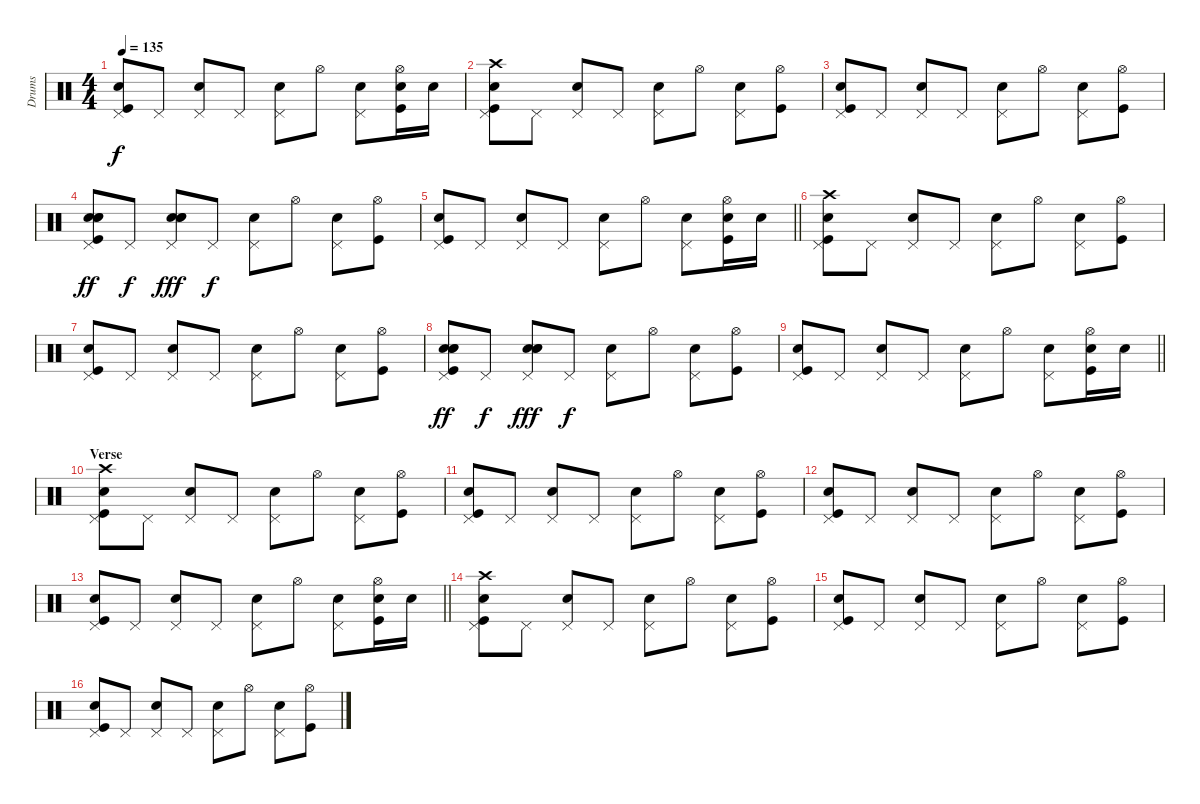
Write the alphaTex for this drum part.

\track ("Drums" "Drums") {instrument percussion}
\staff {score}
\articulation defaults
\ts (4 4)
\tempo 135
\clef neutral
\ks c
("Pedal Hi-Hat (hit)" "Kick (hit)" "Electric Snare (hit)").8{dy f} "Pedal Hi-Hat (hit)".8 ("Pedal Hi-Hat (hit)" "Electric Snare (hit)").8 "Pedal Hi-Hat (hit)".8 ("Pedal Hi-Hat (hit)" "Electric Snare (hit)").8 "Hi-Hat (open)".8 ("Pedal Hi-Hat (hit)" "Electric Snare (hit)").8 ("Hi-Hat (open)" "Kick (hit)" "Electric Snare (hit)").16 "Electric Snare (hit)".16 |
("Pedal Hi-Hat (hit)" "Kick (hit)" "Electric Snare (hit)" "Crash high (hit)").8 "Pedal Hi-Hat (hit)".8 ("Pedal Hi-Hat (hit)" "Electric Snare (hit)").8 "Pedal Hi-Hat (hit)".8 ("Pedal Hi-Hat (hit)" "Electric Snare (hit)").8 "Hi-Hat (open)".8 ("Pedal Hi-Hat (hit)" "Electric Snare (hit)").8 ("Hi-Hat (open)" "Kick (hit)").8 |
("Pedal Hi-Hat (hit)" "Kick (hit)" "Electric Snare (hit)").8 "Pedal Hi-Hat (hit)".8 ("Pedal Hi-Hat (hit)" "Electric Snare (hit)").8 "Pedal Hi-Hat (hit)".8 ("Pedal Hi-Hat (hit)" "Electric Snare (hit)").8 "Hi-Hat (open)".8 ("Pedal Hi-Hat (hit)" "Electric Snare (hit)").8 ("Hi-Hat (open)" "Kick (hit)").8 |
("Pedal Hi-Hat (hit)" "Kick (hit)" "Electric Snare (hit)" "Hand Clap (hit)" "Hand Clap (hit)").8{dy ff} "Pedal Hi-Hat (hit)".8{dy f} ("Pedal Hi-Hat (hit)" "Electric Snare (hit)" "Hand Clap (hit)" "Hand Clap (hit)").8{dy fff} "Pedal Hi-Hat (hit)".8{dy f} ("Pedal Hi-Hat (hit)" "Electric Snare (hit)").8 "Hi-Hat (open)".8 ("Pedal Hi-Hat (hit)" "Electric Snare (hit)").8 ("Hi-Hat (open)" "Kick (hit)").8 |
\barLineRight lightlight
("Pedal Hi-Hat (hit)" "Kick (hit)" "Electric Snare (hit)").8 "Pedal Hi-Hat (hit)".8 ("Pedal Hi-Hat (hit)" "Electric Snare (hit)").8 "Pedal Hi-Hat (hit)".8 ("Pedal Hi-Hat (hit)" "Electric Snare (hit)").8 "Hi-Hat (open)".8 ("Pedal Hi-Hat (hit)" "Electric Snare (hit)").8 ("Hi-Hat (open)" "Kick (hit)" "Electric Snare (hit)").16 "Electric Snare (hit)".16 |
("Pedal Hi-Hat (hit)" "Kick (hit)" "Electric Snare (hit)" "Crash high (hit)").8 "Pedal Hi-Hat (hit)".8 ("Pedal Hi-Hat (hit)" "Electric Snare (hit)").8 "Pedal Hi-Hat (hit)".8 ("Pedal Hi-Hat (hit)" "Electric Snare (hit)").8 "Hi-Hat (open)".8 ("Pedal Hi-Hat (hit)" "Electric Snare (hit)").8 ("Hi-Hat (open)" "Kick (hit)").8 |
("Pedal Hi-Hat (hit)" "Kick (hit)" "Electric Snare (hit)").8 "Pedal Hi-Hat (hit)".8 ("Pedal Hi-Hat (hit)" "Electric Snare (hit)").8 "Pedal Hi-Hat (hit)".8 ("Pedal Hi-Hat (hit)" "Electric Snare (hit)").8 "Hi-Hat (open)".8 ("Pedal Hi-Hat (hit)" "Electric Snare (hit)").8 ("Hi-Hat (open)" "Kick (hit)").8 |
("Pedal Hi-Hat (hit)" "Kick (hit)" "Electric Snare (hit)" "Hand Clap (hit)" "Hand Clap (hit)").8{dy ff} "Pedal Hi-Hat (hit)".8{dy f} ("Pedal Hi-Hat (hit)" "Electric Snare (hit)" "Hand Clap (hit)" "Hand Clap (hit)").8{dy fff} "Pedal Hi-Hat (hit)".8{dy f} ("Pedal Hi-Hat (hit)" "Electric Snare (hit)").8 "Hi-Hat (open)".8 ("Pedal Hi-Hat (hit)" "Electric Snare (hit)").8 ("Hi-Hat (open)" "Kick (hit)").8 |
\barLineRight lightlight
("Pedal Hi-Hat (hit)" "Kick (hit)" "Electric Snare (hit)").8 "Pedal Hi-Hat (hit)".8 ("Pedal Hi-Hat (hit)" "Electric Snare (hit)").8 "Pedal Hi-Hat (hit)".8 ("Pedal Hi-Hat (hit)" "Electric Snare (hit)").8 "Hi-Hat (open)".8 ("Pedal Hi-Hat (hit)" "Electric Snare (hit)").8 ("Hi-Hat (open)" "Kick (hit)" "Electric Snare (hit)").16 "Electric Snare (hit)".16 |
\section ("" "Verse")
("Pedal Hi-Hat (hit)" "Kick (hit)" "Electric Snare (hit)" "Crash high (hit)").8 "Pedal Hi-Hat (hit)".8 ("Pedal Hi-Hat (hit)" "Electric Snare (hit)").8 "Pedal Hi-Hat (hit)".8 ("Pedal Hi-Hat (hit)" "Electric Snare (hit)").8 "Hi-Hat (open)".8 ("Pedal Hi-Hat (hit)" "Electric Snare (hit)").8 ("Hi-Hat (open)" "Kick (hit)").8 |
("Pedal Hi-Hat (hit)" "Kick (hit)" "Electric Snare (hit)").8 "Pedal Hi-Hat (hit)".8 ("Pedal Hi-Hat (hit)" "Electric Snare (hit)").8 "Pedal Hi-Hat (hit)".8 ("Pedal Hi-Hat (hit)" "Electric Snare (hit)").8 "Hi-Hat (open)".8 ("Pedal Hi-Hat (hit)" "Electric Snare (hit)").8 ("Hi-Hat (open)" "Kick (hit)").8 |
("Pedal Hi-Hat (hit)" "Kick (hit)" "Electric Snare (hit)").8 "Pedal Hi-Hat (hit)".8 ("Pedal Hi-Hat (hit)" "Electric Snare (hit)").8 "Pedal Hi-Hat (hit)".8 ("Pedal Hi-Hat (hit)" "Electric Snare (hit)").8 "Hi-Hat (open)".8 ("Pedal Hi-Hat (hit)" "Electric Snare (hit)").8 ("Hi-Hat (open)" "Kick (hit)").8 |
\barLineRight lightlight
("Pedal Hi-Hat (hit)" "Kick (hit)" "Electric Snare (hit)").8 "Pedal Hi-Hat (hit)".8 ("Pedal Hi-Hat (hit)" "Electric Snare (hit)").8 "Pedal Hi-Hat (hit)".8 ("Pedal Hi-Hat (hit)" "Electric Snare (hit)").8 "Hi-Hat (open)".8 ("Pedal Hi-Hat (hit)" "Electric Snare (hit)").8 ("Hi-Hat (open)" "Kick (hit)" "Electric Snare (hit)").16 "Electric Snare (hit)".16 |
("Pedal Hi-Hat (hit)" "Kick (hit)" "Electric Snare (hit)" "Crash high (hit)").8 "Pedal Hi-Hat (hit)".8 ("Pedal Hi-Hat (hit)" "Electric Snare (hit)").8 "Pedal Hi-Hat (hit)".8 ("Pedal Hi-Hat (hit)" "Electric Snare (hit)").8 "Hi-Hat (open)".8 ("Pedal Hi-Hat (hit)" "Electric Snare (hit)").8 ("Hi-Hat (open)" "Kick (hit)").8 |
("Pedal Hi-Hat (hit)" "Kick (hit)" "Electric Snare (hit)").8 "Pedal Hi-Hat (hit)".8 ("Pedal Hi-Hat (hit)" "Electric Snare (hit)").8 "Pedal Hi-Hat (hit)".8 ("Pedal Hi-Hat (hit)" "Electric Snare (hit)").8 "Hi-Hat (open)".8 ("Pedal Hi-Hat (hit)" "Electric Snare (hit)").8 ("Hi-Hat (open)" "Kick (hit)").8 |
("Pedal Hi-Hat (hit)" "Kick (hit)" "Electric Snare (hit)").8 "Pedal Hi-Hat (hit)".8 ("Pedal Hi-Hat (hit)" "Electric Snare (hit)").8 "Pedal Hi-Hat (hit)".8 ("Pedal Hi-Hat (hit)" "Electric Snare (hit)").8 "Hi-Hat (open)".8 ("Pedal Hi-Hat (hit)" "Electric Snare (hit)").8 ("Hi-Hat (open)" "Kick (hit)").8
